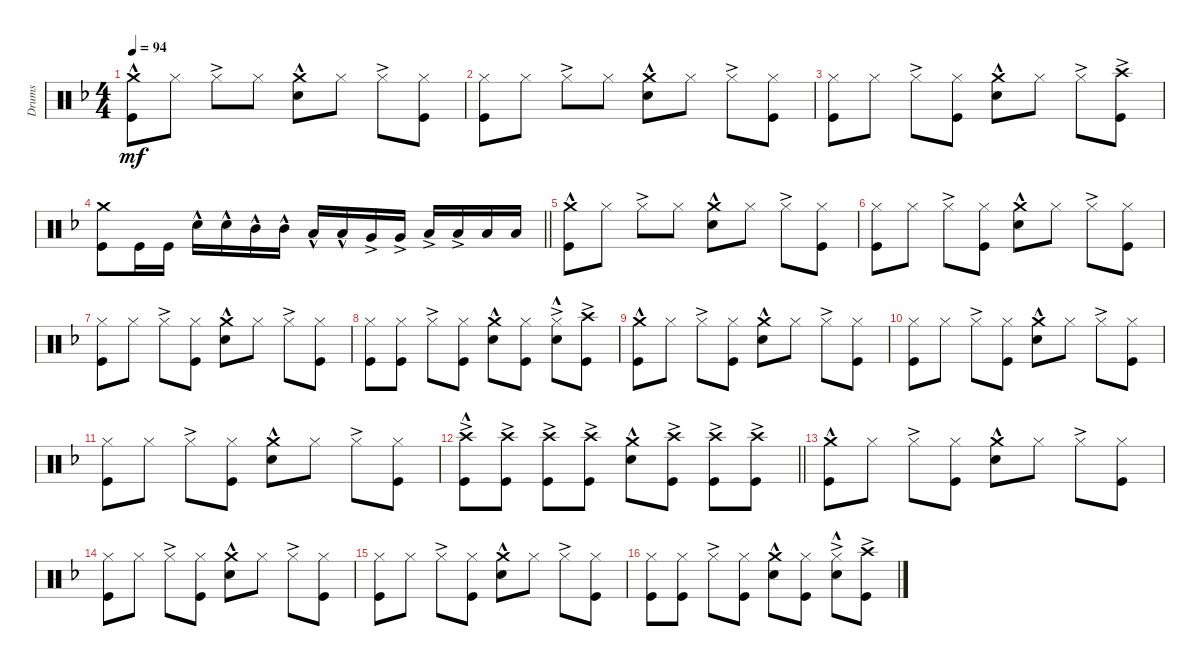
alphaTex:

\track ("Drums" "Drums") {instrument percussion}
\staff {score}
\articulation defaults
\ts (4 4)
\tempo 94
\clef neutral
\ks dminor
("Crash medium (hit)"{hac} "Kick (hit)").8{dy mf} "Hi-Hat (closed)".8 "Hi-Hat (closed)"{ac}.8 "Hi-Hat (closed)".8 ("Crash medium (hit)" "Snare (hit) 2"{hac}).8 "Hi-Hat (closed)".8 "Hi-Hat (closed)"{ac}.8 ("Hi-Hat (closed)" "Kick (hit)").8 |
("Kick (hit)" "Hi-Hat (closed)").8 "Hi-Hat (closed)".8 "Hi-Hat (closed)"{ac}.8 "Hi-Hat (closed)".8 ("Crash medium (hit)" "Snare (hit) 2"{hac}).8 "Hi-Hat (closed)".8 "Hi-Hat (closed)"{ac}.8 ("Hi-Hat (closed)" "Kick (hit)").8 |
("Kick (hit)" "Hi-Hat (closed)").8 "Hi-Hat (closed)".8 "Hi-Hat (closed)"{ac}.8 ("Hi-Hat (closed)" "Kick (hit)").8 ("Crash medium (hit)" "Snare (hit) 2"{hac}).8 "Hi-Hat (closed)".8 "Hi-Hat (closed)"{ac}.8 ("Kick (hit)" "Crash high (hit)"{ac}).8 |
\barLineRight lightlight
("Kick (hit)" "Crash medium (hit)").8 "Kick (hit)".16 "Kick (hit)".16 "Snare (hit) 2"{hac}.16 "Snare (hit) 2"{hac}.16 "Mid Tom (hit)"{hac}.16 "Mid Tom (hit)"{hac}.16 "Low Tom (hit)"{hac}.16 "Low Tom (hit)"{hac}.16 "Very Low Tom (hit)"{ac}.16 "Very Low Tom (hit)"{ac}.16 "Low Floor Tom (hit)"{ac}.16 "Low Floor Tom (hit)"{ac}.16 "Low Floor Tom (hit)".16 "Low Floor Tom (hit)".16 |
("Kick (hit)" "Crash medium (hit)"{hac}).8 "Hi-Hat (closed)".8 "Hi-Hat (closed)"{ac}.8 "Hi-Hat (closed)".8 ("Crash medium (hit)" "Snare (hit) 2"{hac}).8 "Hi-Hat (closed)".8 "Hi-Hat (closed)"{ac}.8 ("Hi-Hat (closed)" "Kick (hit)").8 |
("Kick (hit)" "Hi-Hat (closed)").8 "Hi-Hat (closed)".8 "Hi-Hat (closed)"{ac}.8 ("Hi-Hat (closed)" "Kick (hit)").8 ("Crash medium (hit)" "Snare (hit) 2"{hac}).8 "Hi-Hat (closed)".8 "Hi-Hat (closed)"{ac}.8 ("Hi-Hat (closed)" "Kick (hit)").8 |
("Kick (hit)" "Hi-Hat (closed)").8 "Hi-Hat (closed)".8 "Hi-Hat (closed)"{ac}.8 ("Hi-Hat (closed)" "Kick (hit)").8 ("Crash medium (hit)" "Snare (hit) 2"{hac}).8 "Hi-Hat (closed)".8 "Hi-Hat (closed)"{ac}.8 ("Hi-Hat (closed)" "Kick (hit)").8 |
("Kick (hit)" "Hi-Hat (closed)").8 ("Hi-Hat (closed)" "Kick (hit)").8 "Hi-Hat (closed)"{ac}.8 ("Hi-Hat (closed)" "Kick (hit)").8 ("Crash medium (hit)" "Snare (hit) 2"{hac}).8 ("Hi-Hat (closed)" "Kick (hit)").8 ("Hi-Hat (closed)"{ac} "Snare (hit) 2"{hac}).8 ("Kick (hit)" "Crash high (hit)"{ac}).8 |
("Kick (hit)" "Crash medium (hit)"{hac}).8 "Hi-Hat (closed)".8 "Hi-Hat (closed)"{ac}.8 ("Hi-Hat (closed)" "Kick (hit)").8 ("Crash medium (hit)" "Snare (hit) 2"{hac}).8 "Hi-Hat (closed)".8 "Hi-Hat (closed)"{ac}.8 ("Hi-Hat (closed)" "Kick (hit)").8 |
("Kick (hit)" "Hi-Hat (closed)").8 "Hi-Hat (closed)".8 "Hi-Hat (closed)"{ac}.8 ("Hi-Hat (closed)" "Kick (hit)").8 ("Crash medium (hit)" "Snare (hit) 2"{hac}).8 "Hi-Hat (closed)".8 "Hi-Hat (closed)"{ac}.8 ("Hi-Hat (closed)" "Kick (hit)").8 |
("Kick (hit)" "Hi-Hat (closed)").8 "Hi-Hat (closed)".8 "Hi-Hat (closed)"{ac}.8 ("Hi-Hat (closed)" "Kick (hit)").8 ("Crash medium (hit)" "Snare (hit) 2"{hac}).8 "Hi-Hat (closed)".8 "Hi-Hat (closed)"{ac}.8 ("Hi-Hat (closed)" "Kick (hit)").8 |
\barLineRight lightlight
("Kick (hit)"{ac} "Crash high (hit)"{hac}).8 ("Kick (hit)" "Crash high (hit)"{ac}).8 ("Crash high (hit)"{ac} "Kick (hit)").8 ("Kick (hit)" "Crash high (hit)"{ac}).8 ("Crash medium (hit)" "Snare (hit) 2"{hac}).8 ("Kick (hit)" "Crash high (hit)"{ac}).8 ("Kick (hit)" "Crash high (hit)"{ac}).8 ("Kick (hit)" "Crash high (hit)"{ac}).8 |
("Kick (hit)" "Crash medium (hit)"{hac}).8 "Hi-Hat (closed)".8 "Hi-Hat (closed)"{ac}.8 ("Hi-Hat (closed)" "Kick (hit)").8 ("Crash medium (hit)" "Snare (hit) 2"{hac}).8 "Hi-Hat (closed)".8 "Hi-Hat (closed)"{ac}.8 ("Hi-Hat (closed)" "Kick (hit)").8 |
("Kick (hit)" "Hi-Hat (closed)").8 "Hi-Hat (closed)".8 "Hi-Hat (closed)"{ac}.8 ("Hi-Hat (closed)" "Kick (hit)").8 ("Crash medium (hit)" "Snare (hit) 2"{hac}).8 "Hi-Hat (closed)".8 "Hi-Hat (closed)"{ac}.8 ("Hi-Hat (closed)" "Kick (hit)").8 |
("Kick (hit)" "Hi-Hat (closed)").8 "Hi-Hat (closed)".8 "Hi-Hat (closed)"{ac}.8 ("Hi-Hat (closed)" "Kick (hit)").8 ("Crash medium (hit)" "Snare (hit) 2"{hac}).8 "Hi-Hat (closed)".8 "Hi-Hat (closed)"{ac}.8 ("Hi-Hat (closed)" "Kick (hit)").8 |
("Kick (hit)" "Hi-Hat (closed)").8 ("Hi-Hat (closed)" "Kick (hit)").8 "Hi-Hat (closed)"{ac}.8 ("Hi-Hat (closed)" "Kick (hit)").8 ("Crash medium (hit)" "Snare (hit) 2"{hac}).8 ("Hi-Hat (closed)" "Kick (hit)").8 ("Hi-Hat (closed)"{ac} "Snare (hit) 2"{hac}).8 ("Kick (hit)" "Crash high (hit)"{ac}).8
